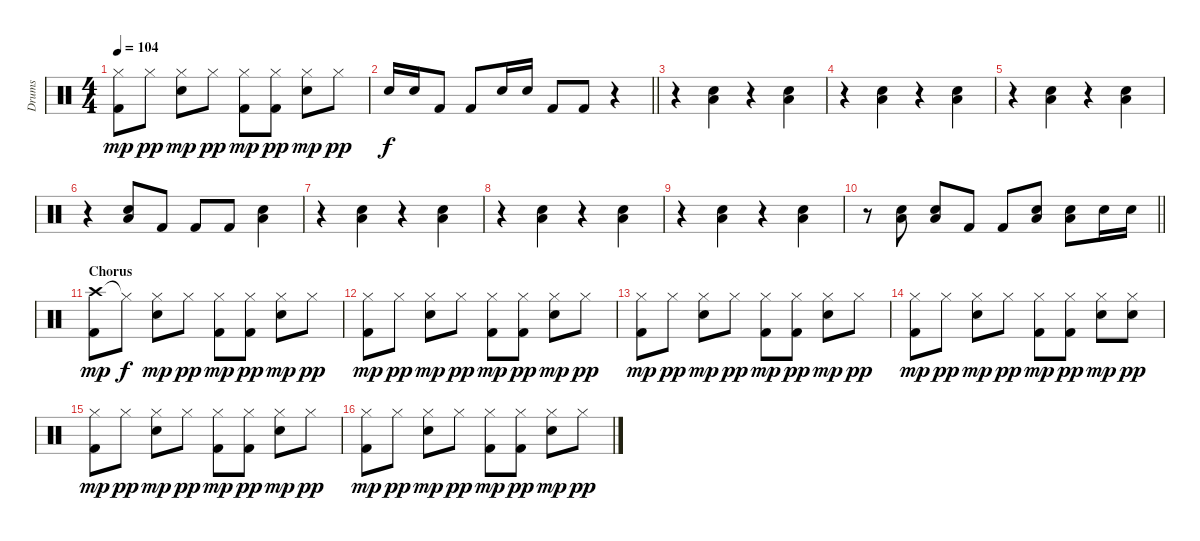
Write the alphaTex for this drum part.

\track ("Drums" "Drums") {instrument percussion}
\staff {score}
\articulation defaults
\ts (4 4)
\tempo 104
\clef neutral
\ks c
("Hi-Hat (closed)" "Kick (hit) 2").8{dy mp} "Hi-Hat (closed)".8{dy pp} ("Hi-Hat (closed)" "Electric Snare (hit)").8{dy mp} "Hi-Hat (closed)".8{dy pp} ("Hi-Hat (closed)" "Kick (hit) 2").8{dy mp} ("Hi-Hat (closed)" "Kick (hit) 2").8{dy pp} ("Hi-Hat (closed)" "Electric Snare (hit)").8{dy mp} "Hi-Hat (closed)".8{dy pp} |
\barLineRight lightlight "Electric Snare (hit)".16{dy f} "Electric Snare (hit)".16 "Kick (hit) 2".8 "Kick (hit) 2".8 "Electric Snare (hit)".16 "Electric Snare (hit)".16 "Kick (hit) 2".8 "Kick (hit) 2".8
r.4 |
r.4 ("Electric Snare (hit)" "Low Floor Tom (hit)").4 r.4 ("Electric Snare (hit)" "Low Floor Tom (hit)").4 |
r.4 ("Electric Snare (hit)" "Low Floor Tom (hit)").4 r.4 ("Electric Snare (hit)" "Low Floor Tom (hit)").4 |
r.4 ("Electric Snare (hit)" "Low Floor Tom (hit)").4 r.4 ("Electric Snare (hit)" "Low Floor Tom (hit)").4 |
r.4 ("Electric Snare (hit)" "Low Floor Tom (hit)").8 "Kick (hit) 2".8 "Kick (hit) 2".8 "Kick (hit) 2".8 ("Electric Snare (hit)" "Low Floor Tom (hit)").4 |
r.4 ("Electric Snare (hit)" "Low Floor Tom (hit)").4 r.4 ("Electric Snare (hit)" "Low Floor Tom (hit)").4 |
r.4 ("Electric Snare (hit)" "Low Floor Tom (hit)").4 r.4 ("Electric Snare (hit)" "Low Floor Tom (hit)").4 |
r.4 ("Electric Snare (hit)" "Low Floor Tom (hit)").4 r.4 ("Electric Snare (hit)" "Low Floor Tom (hit)").4 |
\barLineRight lightlight
r.8 ("Electric Snare (hit)" "Low Floor Tom (hit)").8 ("Electric Snare (hit)" "Low Floor Tom (hit)").8 "Kick (hit) 2".8 "Kick (hit) 2".8 ("Electric Snare (hit)" "Low Floor Tom (hit)").8 ("Electric Snare (hit)" "Low Floor Tom (hit)").8 "Electric Snare (hit)".16 "Electric Snare (hit)".16 |
\section ("" "Chorus")
("Crash high (hit)" "Kick (hit) 2").8{dy mp} "Hi-Hat (closed)"{t}.8{dy f} ("Hi-Hat (closed)" "Electric Snare (hit)").8{dy mp} "Hi-Hat (closed)".8{dy pp} ("Hi-Hat (closed)" "Kick (hit) 2").8{dy mp} ("Hi-Hat (closed)" "Kick (hit) 2").8{dy pp} ("Hi-Hat (closed)" "Electric Snare (hit)").8{dy mp} "Hi-Hat (closed)".8{dy pp} |
("Hi-Hat (closed)" "Kick (hit) 2").8{dy mp} "Hi-Hat (closed)".8{dy pp} ("Hi-Hat (closed)" "Electric Snare (hit)").8{dy mp} "Hi-Hat (closed)".8{dy pp} ("Hi-Hat (closed)" "Kick (hit) 2").8{dy mp} ("Hi-Hat (closed)" "Kick (hit) 2").8{dy pp} ("Hi-Hat (closed)" "Electric Snare (hit)").8{dy mp} "Hi-Hat (closed)".8{dy pp} |
("Hi-Hat (closed)" "Kick (hit) 2").8{dy mp} "Hi-Hat (closed)".8{dy pp} ("Hi-Hat (closed)" "Electric Snare (hit)").8{dy mp} "Hi-Hat (closed)".8{dy pp} ("Hi-Hat (closed)" "Kick (hit) 2").8{dy mp} ("Hi-Hat (closed)" "Kick (hit) 2").8{dy pp} ("Hi-Hat (closed)" "Electric Snare (hit)").8{dy mp} "Hi-Hat (closed)".8{dy pp} |
("Hi-Hat (closed)" "Kick (hit) 2").8{dy mp} "Hi-Hat (closed)".8{dy pp} ("Hi-Hat (closed)" "Electric Snare (hit)").8{dy mp} "Hi-Hat (closed)".8{dy pp} ("Hi-Hat (closed)" "Kick (hit) 2").8{dy mp} ("Hi-Hat (closed)" "Kick (hit) 2").8{dy pp} ("Hi-Hat (closed)" "Electric Snare (hit)").8{dy mp} ("Hi-Hat (closed)" "Electric Snare (hit)").8{dy pp} |
("Hi-Hat (closed)" "Kick (hit) 2").8{dy mp} "Hi-Hat (closed)".8{dy pp} ("Hi-Hat (closed)" "Electric Snare (hit)").8{dy mp} "Hi-Hat (closed)".8{dy pp} ("Hi-Hat (closed)" "Kick (hit) 2").8{dy mp} ("Hi-Hat (closed)" "Kick (hit) 2").8{dy pp} ("Hi-Hat (closed)" "Electric Snare (hit)").8{dy mp} "Hi-Hat (closed)".8{dy pp} |
("Hi-Hat (closed)" "Kick (hit) 2").8{dy mp} "Hi-Hat (closed)".8{dy pp} ("Hi-Hat (closed)" "Electric Snare (hit)").8{dy mp} "Hi-Hat (closed)".8{dy pp} ("Hi-Hat (closed)" "Kick (hit) 2").8{dy mp} ("Hi-Hat (closed)" "Kick (hit) 2").8{dy pp} ("Hi-Hat (closed)" "Electric Snare (hit)").8{dy mp} "Hi-Hat (closed)".8{dy pp}
